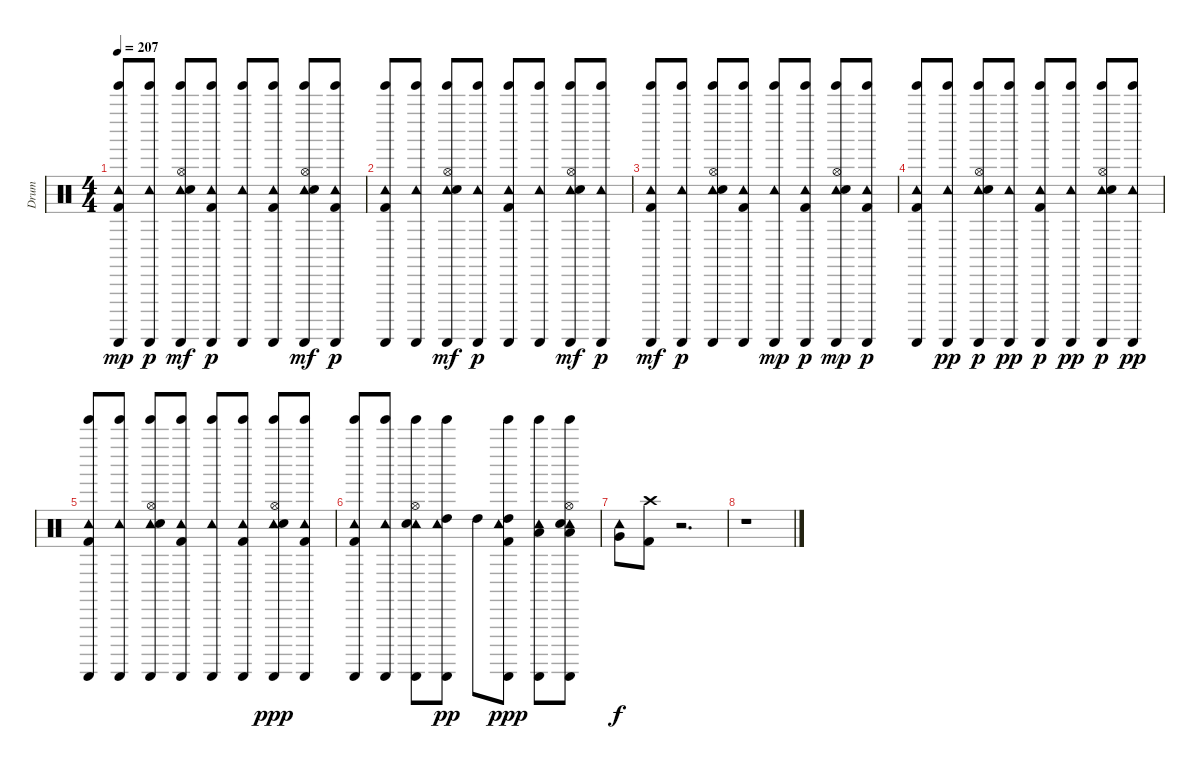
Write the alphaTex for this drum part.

\track ("Drum" "Drum") {instrument percussion}
\staff {score}
\articulation defaults
\ts (4 4)
\tempo 207
\clef neutral
\ks c
("Tambourine (hit)" "Kick (hit) 2" "Tinkle Bell (hit)" "Guiro (scrap-return)").8{dy mp} ("Tambourine (hit)" "Tinkle Bell (hit)" "Guiro (scrap-return)").8{dy p} ("Tambourine (hit)" "Hi-Hat (open)" "Snare (hit) 2" "Tinkle Bell (hit)" "Guiro (scrap-return)").8{dy mf} ("Tambourine (hit)" "Kick (hit) 2" "Tinkle Bell (hit)" "Guiro (scrap-return)").8{dy p} ("Tambourine (hit)" "Tinkle Bell (hit)" "Guiro (scrap-return)").8 ("Tambourine (hit)" "Kick (hit) 2" "Tinkle Bell (hit)" "Guiro (scrap-return)").8 ("Tambourine (hit)" "Hi-Hat (open)" "Snare (hit) 2" "Tinkle Bell (hit)" "Guiro (scrap-return)").8{dy mf} ("Tambourine (hit)" "Kick (hit) 2" "Tinkle Bell (hit)" "Guiro (scrap-return)").8{dy p} |
("Tambourine (hit)" "Kick (hit) 2" "Tinkle Bell (hit)" "Guiro (scrap-return)").8 ("Tambourine (hit)" "Tinkle Bell (hit)" "Guiro (scrap-return)").8 ("Tambourine (hit)" "Hi-Hat (open)" "Snare (hit) 2" "Tinkle Bell (hit)" "Guiro (scrap-return)").8{dy mf} ("Tambourine (hit)" "Tinkle Bell (hit)" "Guiro (scrap-return)").8{dy p} ("Tambourine (hit)" "Kick (hit) 2" "Tinkle Bell (hit)" "Guiro (scrap-return)").8 ("Tambourine (hit)" "Tinkle Bell (hit)" "Guiro (scrap-return)").8 ("Tambourine (hit)" "Hi-Hat (open)" "Snare (hit) 2" "Tinkle Bell (hit)" "Guiro (scrap-return)").8{dy mf} ("Tambourine (hit)" "Tinkle Bell (hit)" "Guiro (scrap-return)").8{dy p} |
("Tambourine (hit)" "Kick (hit) 2" "Tinkle Bell (hit)" "Guiro (scrap-return)").8{dy mf} ("Tambourine (hit)" "Tinkle Bell (hit)" "Guiro (scrap-return)").8{dy p} ("Tambourine (hit)" "Hi-Hat (open)" "Snare (hit) 2" "Tinkle Bell (hit)" "Guiro (scrap-return)").8 ("Tambourine (hit)" "Kick (hit) 2" "Tinkle Bell (hit)" "Guiro (scrap-return)").8 ("Tambourine (hit)" "Tinkle Bell (hit)" "Guiro (scrap-return)").8{dy mp} ("Tambourine (hit)" "Kick (hit) 2" "Tinkle Bell (hit)" "Guiro (scrap-return)").8{dy p} ("Tambourine (hit)" "Hi-Hat (open)" "Snare (hit) 2" "Tinkle Bell (hit)" "Guiro (scrap-return)").8{dy mp} ("Tambourine (hit)" "Kick (hit) 2" "Tinkle Bell (hit)" "Guiro (scrap-return)").8{dy p} |
("Tambourine (hit)" "Kick (hit) 2" "Tinkle Bell (hit)" "Guiro (scrap-return)").8 ("Tambourine (hit)" "Tinkle Bell (hit)" "Guiro (scrap-return)").8{dy pp} ("Tambourine (hit)" "Hi-Hat (open)" "Snare (hit) 2" "Tinkle Bell (hit)" "Guiro (scrap-return)").8{dy p} ("Tambourine (hit)" "Tinkle Bell (hit)" "Guiro (scrap-return)").8{dy pp} ("Tambourine (hit)" "Kick (hit) 2" "Tinkle Bell (hit)" "Guiro (scrap-return)").8{dy p} ("Tambourine (hit)" "Tinkle Bell (hit)" "Guiro (scrap-return)").8{dy pp} ("Tambourine (hit)" "Hi-Hat (open)" "Snare (hit) 2" "Tinkle Bell (hit)" "Guiro (scrap-return)").8{dy p} ("Tambourine (hit)" "Tinkle Bell (hit)" "Guiro (scrap-return)").8{dy pp} |
("Tambourine (hit)" "Kick (hit) 2" "Tinkle Bell (hit)" "Guiro (scrap-return)").8 ("Tambourine (hit)" "Tinkle Bell (hit)" "Guiro (scrap-return)").8 ("Tambourine (hit)" "Hi-Hat (open)" "Snare (hit) 2" "Tinkle Bell (hit)" "Guiro (scrap-return)").8 ("Tambourine (hit)" "Kick (hit) 2" "Tinkle Bell (hit)" "Guiro (scrap-return)").8 ("Tambourine (hit)" "Tinkle Bell (hit)" "Guiro (scrap-return)").8 ("Tambourine (hit)" "Kick (hit) 2" "Tinkle Bell (hit)" "Guiro (scrap-return)").8 ("Tambourine (hit)" "Hi-Hat (open)" "Snare (hit) 2" "Tinkle Bell (hit)" "Guiro (scrap-return)").8{dy ppp} ("Tambourine (hit)" "Kick (hit) 2" "Tinkle Bell (hit)" "Guiro (scrap-return)").8 |
("Tambourine (hit)" "Kick (hit) 2" "Tinkle Bell (hit)" "Guiro (scrap-return)").8 ("Tambourine (hit)" "Tinkle Bell (hit)" "Guiro (scrap-return)").8 ("Tambourine (hit)" "Hi-Hat (open)" "Snare (hit) 2" "Tinkle Bell (hit)" "Guiro (scrap-return)").8 ("Tambourine (hit)" "Tinkle Bell (hit)" "Guiro (scrap-return)" "High Tom (hit)").8{dy pp} "High Tom (hit)".8 ("Tambourine (hit)" "Kick (hit) 2" "Tinkle Bell (hit)" "Guiro (scrap-return)" "High Tom (hit)").8{dy ppp} ("Tambourine (hit)" "Tinkle Bell (hit)" "Guiro (scrap-return)" "Low Tom (hit)").8 ("Tambourine (hit)" "Hi-Hat (open)" "Snare (hit) 2" "Tinkle Bell (hit)" "Guiro (scrap-return)" "Low Tom (hit)").8 |
("Tambourine (hit)" "Very Low Tom (hit)").8{dy f} ("Kick (hit) 2" "Crash high (hit)").8 r.2{d} |
r.1
